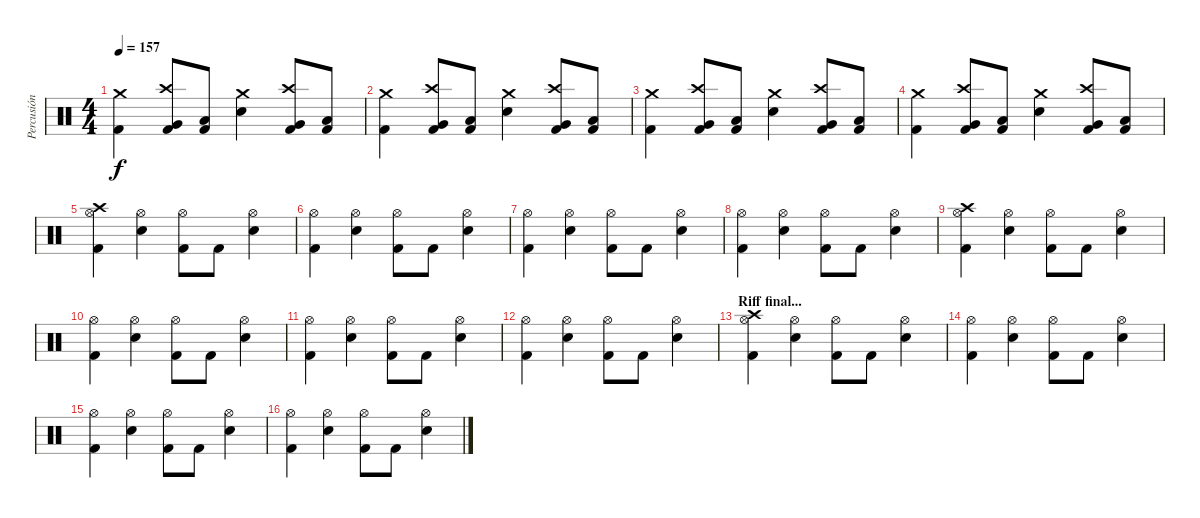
\track ("Percusión" "Percusión") {instrument percussion}
\staff {score}
\articulation defaults
\ts (4 4)
\tempo 157
\clef neutral
\ks c
("Crash medium (hit)" "Kick (hit) 2").4{dy f} ("Crash high (hit)" "Very Low Tom (hit)" "Kick (hit) 2").8 ("Low Floor Tom (hit)" "Kick (hit) 2").8 ("Crash medium (hit)" "Snare (hit) 2").4 ("Crash high (hit)" "Very Low Tom (hit)" "Kick (hit) 2").8 ("Low Floor Tom (hit)" "Kick (hit) 2").8 |
("Crash medium (hit)" "Kick (hit) 2").4 ("Crash high (hit)" "Very Low Tom (hit)" "Kick (hit) 2").8 ("Low Floor Tom (hit)" "Kick (hit) 2").8 ("Crash medium (hit)" "Snare (hit) 2").4 ("Crash high (hit)" "Very Low Tom (hit)" "Kick (hit) 2").8 ("Low Floor Tom (hit)" "Kick (hit) 2").8 |
("Crash medium (hit)" "Kick (hit) 2").4 ("Crash high (hit)" "Very Low Tom (hit)" "Kick (hit) 2").8 ("Low Floor Tom (hit)" "Kick (hit) 2").8 ("Crash medium (hit)" "Snare (hit) 2").4 ("Crash high (hit)" "Very Low Tom (hit)" "Kick (hit) 2").8 ("Low Floor Tom (hit)" "Kick (hit) 2").8 |
("Crash medium (hit)" "Kick (hit) 2").4 ("Crash high (hit)" "Very Low Tom (hit)" "Kick (hit) 2").8 ("Low Floor Tom (hit)" "Kick (hit) 2").8 ("Crash medium (hit)" "Snare (hit) 2").4 ("Crash high (hit)" "Very Low Tom (hit)" "Kick (hit) 2").8 ("Low Floor Tom (hit)" "Kick (hit) 2").8 |
("Crash high (hit)" "Hi-Hat (open)" "Kick (hit) 2").4 ("Hi-Hat (open)" "Snare (hit) 2").4 ("Hi-Hat (open)" "Kick (hit) 2").8 "Kick (hit) 2".8 ("Hi-Hat (open)" "Snare (hit) 2").4 |
("Hi-Hat (open)" "Kick (hit) 2").4 ("Hi-Hat (open)" "Snare (hit) 2").4 ("Hi-Hat (open)" "Kick (hit) 2").8 "Kick (hit) 2".8 ("Hi-Hat (open)" "Snare (hit) 2").4 |
("Hi-Hat (open)" "Kick (hit) 2").4 ("Hi-Hat (open)" "Snare (hit) 2").4 ("Hi-Hat (open)" "Kick (hit) 2").8 "Kick (hit) 2".8 ("Hi-Hat (open)" "Snare (hit) 2").4 |
("Hi-Hat (open)" "Kick (hit) 2").4 ("Hi-Hat (open)" "Snare (hit) 2").4 ("Hi-Hat (open)" "Kick (hit) 2").8 "Kick (hit) 2".8 ("Hi-Hat (open)" "Snare (hit) 2").4 |
("Crash high (hit)" "Hi-Hat (open)" "Kick (hit) 2").4 ("Hi-Hat (open)" "Snare (hit) 2").4 ("Hi-Hat (open)" "Kick (hit) 2").8 "Kick (hit) 2".8 ("Hi-Hat (open)" "Snare (hit) 2").4 |
("Hi-Hat (open)" "Kick (hit) 2").4 ("Hi-Hat (open)" "Snare (hit) 2").4 ("Hi-Hat (open)" "Kick (hit) 2").8 "Kick (hit) 2".8 ("Hi-Hat (open)" "Snare (hit) 2").4 |
("Hi-Hat (open)" "Kick (hit) 2").4 ("Hi-Hat (open)" "Snare (hit) 2").4 ("Hi-Hat (open)" "Kick (hit) 2").8 "Kick (hit) 2".8 ("Hi-Hat (open)" "Snare (hit) 2").4 |
("Hi-Hat (open)" "Kick (hit) 2").4 ("Hi-Hat (open)" "Snare (hit) 2").4 ("Hi-Hat (open)" "Kick (hit) 2").8 "Kick (hit) 2".8 ("Hi-Hat (open)" "Snare (hit) 2").4 |
\section ("" "Riff final...")
("Crash high (hit)" "Hi-Hat (open)" "Kick (hit) 2").4 ("Hi-Hat (open)" "Snare (hit) 2").4 ("Hi-Hat (open)" "Kick (hit) 2").8 "Kick (hit) 2".8 ("Hi-Hat (open)" "Snare (hit) 2").4 |
("Hi-Hat (open)" "Kick (hit) 2").4 ("Hi-Hat (open)" "Snare (hit) 2").4 ("Hi-Hat (open)" "Kick (hit) 2").8 "Kick (hit) 2".8 ("Hi-Hat (open)" "Snare (hit) 2").4 |
("Hi-Hat (open)" "Kick (hit) 2").4 ("Hi-Hat (open)" "Snare (hit) 2").4 ("Hi-Hat (open)" "Kick (hit) 2").8 "Kick (hit) 2".8 ("Hi-Hat (open)" "Snare (hit) 2").4 |
("Hi-Hat (open)" "Kick (hit) 2").4 ("Hi-Hat (open)" "Snare (hit) 2").4 ("Hi-Hat (open)" "Kick (hit) 2").8 "Kick (hit) 2".8 ("Hi-Hat (open)" "Snare (hit) 2").4
